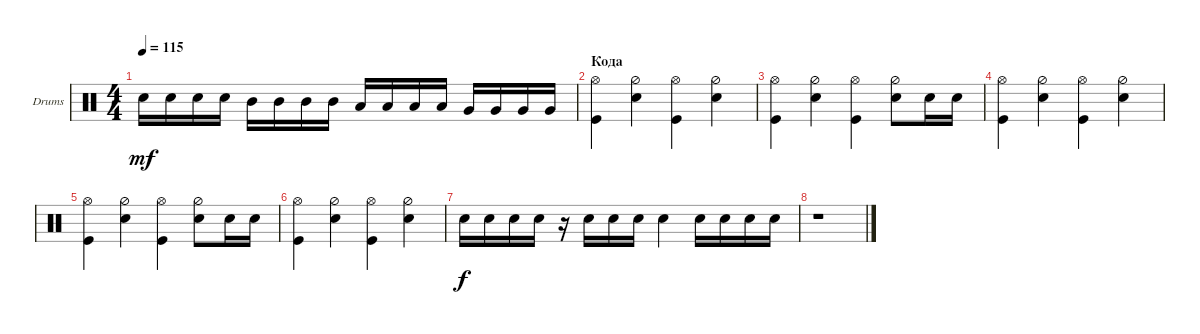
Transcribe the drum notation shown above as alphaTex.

\defaultSystemsLayout 4
\bracketExtendMode groupsimilarinstruments
\firstSystemTrackNameOrientation horizontal
\otherSystemsTrackNameOrientation horizontal
\track ("Ударные" "Drums") {instrument percussion}
\staff {score}
\articulation defaults
\ts (4 4)
\tempo 115
\clef neutral
\ks c "Snare (hit) 2".16{dy mf} "Snare (hit) 2".16 "Snare (hit) 2".16 "Snare (hit) 2".16 "Mid Tom (hit)".16 "Mid Tom (hit)".16 "Mid Tom (hit)".16 "Mid Tom (hit)".16 "Low Tom (hit)".16 "Low Tom (hit)".16 "Low Tom (hit)".16 "Low Tom (hit)".16 "Very Low Tom (hit)".16 "Very Low Tom (hit)".16 "Very Low Tom (hit)".16 "Very Low Tom (hit)".16
|
\section ("" "Кода")
("Kick (hit)" "Hi-Hat (open)").4 ("Hi-Hat (half)" "Snare (hit) 2").4 ("Kick (hit)" "Hi-Hat (open)").4 ("Hi-Hat (half)" "Snare (hit) 2").4 |
("Kick (hit)" "Hi-Hat (open)").4 ("Hi-Hat (half)" "Snare (hit) 2").4 ("Kick (hit)" "Hi-Hat (open)").4 ("Hi-Hat (half)" "Snare (hit) 2").8 "Snare (hit) 2".16 "Snare (hit) 2".16 |
("Kick (hit)" "Hi-Hat (open)").4 ("Hi-Hat (half)" "Snare (hit) 2").4 ("Kick (hit)" "Hi-Hat (open)").4 ("Hi-Hat (half)" "Snare (hit) 2").4 |
("Kick (hit)" "Hi-Hat (open)").4 ("Hi-Hat (half)" "Snare (hit) 2").4 ("Kick (hit)" "Hi-Hat (open)").4 ("Hi-Hat (half)" "Snare (hit) 2").8 "Snare (hit) 2".16 "Snare (hit) 2".16 |
("Kick (hit)" "Hi-Hat (open)").4 ("Hi-Hat (half)" "Snare (hit) 2").4 ("Kick (hit)" "Hi-Hat (open)").4 ("Hi-Hat (half)" "Snare (hit) 2").4 |
"Snare (hit) 2".16{dy f} "Snare (hit) 2".16 "Snare (hit) 2".16 "Snare (hit) 2".16 r.16 "Snare (hit) 2".16 "Snare (hit) 2".16 "Snare (hit) 2".16 "Snare (hit) 2".4 "Snare (hit) 2".16 "Snare (hit) 2".16 "Snare (hit) 2".16 "Snare (hit) 2".16 |
r.1
